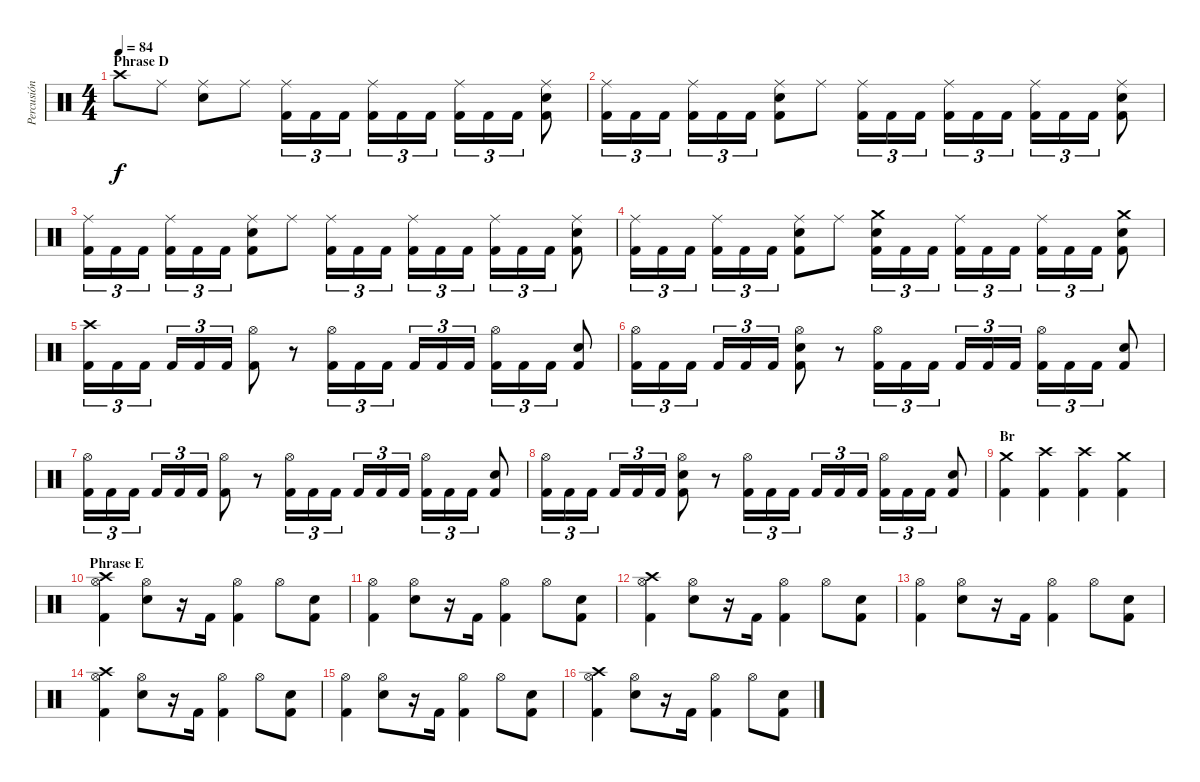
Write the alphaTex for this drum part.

\track ("Percusión" "Percusión") {instrument percussion}
\staff {score}
\articulation defaults
\ts (4 4)
\section ("" "Phrase D")
\tempo 84
\clef neutral
\ks c "Crash high (hit)".8{dy f} "Ride (middle)".8
("Ride (middle)" "Electric Snare (hit)").8 "Ride (middle)".8 ("Ride (middle)" "Kick (hit) 2").16{tu (3 2)} "Kick (hit) 2".16{tu (3 2)} "Kick (hit) 2".16{tu (3 2)} ("Ride (middle)" "Kick (hit) 2").16{tu (3 2)} "Kick (hit) 2".16{tu (3 2)} "Kick (hit) 2".16{tu (3 2)} ("Ride (middle)" "Kick (hit) 2").16{tu (3 2)} "Kick (hit) 2".16{tu (3 2)} "Kick (hit) 2".16{tu (3 2)} ("Ride (middle)" "Electric Snare (hit)" "Kick (hit) 2").8 |
("Ride (middle)" "Kick (hit) 2").16{tu (3 2)} "Kick (hit) 2".16{tu (3 2)} "Kick (hit) 2".16{tu (3 2)} ("Ride (middle)" "Kick (hit) 2").16{tu (3 2)} "Kick (hit) 2".16{tu (3 2)} "Kick (hit) 2".16{tu (3 2)} ("Ride (middle)" "Electric Snare (hit)" "Kick (hit) 2").8 "Ride (middle)".8 ("Ride (middle)" "Kick (hit) 2").16{tu (3 2)} "Kick (hit) 2".16{tu (3 2)} "Kick (hit) 2".16{tu (3 2)} ("Ride (middle)" "Kick (hit) 2").16{tu (3 2)} "Kick (hit) 2".16{tu (3 2)} "Kick (hit) 2".16{tu (3 2)} ("Ride (middle)" "Kick (hit) 2").16{tu (3 2)} "Kick (hit) 2".16{tu (3 2)} "Kick (hit) 2".16{tu (3 2)} ("Ride (middle)" "Electric Snare (hit)" "Kick (hit) 2").8 |
("Ride (middle)" "Kick (hit) 2").16{tu (3 2)} "Kick (hit) 2".16{tu (3 2)} "Kick (hit) 2".16{tu (3 2)} ("Ride (middle)" "Kick (hit) 2").16{tu (3 2)} "Kick (hit) 2".16{tu (3 2)} "Kick (hit) 2".16{tu (3 2)} ("Ride (middle)" "Electric Snare (hit)" "Kick (hit) 2").8 "Ride (middle)".8 ("Ride (middle)" "Kick (hit) 2").16{tu (3 2)} "Kick (hit) 2".16{tu (3 2)} "Kick (hit) 2".16{tu (3 2)} ("Ride (middle)" "Kick (hit) 2").16{tu (3 2)} "Kick (hit) 2".16{tu (3 2)} "Kick (hit) 2".16{tu (3 2)} ("Ride (middle)" "Kick (hit) 2").16{tu (3 2)} "Kick (hit) 2".16{tu (3 2)} "Kick (hit) 2".16{tu (3 2)} ("Ride (middle)" "Electric Snare (hit)" "Kick (hit) 2").8 |
("Ride (middle)" "Kick (hit) 2").16{tu (3 2)} "Kick (hit) 2".16{tu (3 2)} "Kick (hit) 2".16{tu (3 2)} ("Ride (middle)" "Kick (hit) 2").16{tu (3 2)} "Kick (hit) 2".16{tu (3 2)} "Kick (hit) 2".16{tu (3 2)} ("Ride (middle)" "Electric Snare (hit)" "Kick (hit) 2").8 "Ride (middle)".8 ("Crash medium (hit)" "Electric Snare (hit)" "Kick (hit) 2").16{tu (3 2)} "Kick (hit) 2".16{tu (3 2)} "Kick (hit) 2".16{tu (3 2)} ("Ride (middle)" "Kick (hit) 2").16{tu (3 2)} "Kick (hit) 2".16{tu (3 2)} "Kick (hit) 2".16{tu (3 2)} ("Ride (middle)" "Kick (hit) 2").16{tu (3 2)} "Kick (hit) 2".16{tu (3 2)} "Kick (hit) 2".16{tu (3 2)} ("Crash medium (hit)" "Electric Snare (hit)" "Kick (hit) 2").8 |
("Crash high (hit)" "Kick (hit) 2").16{tu (3 2)} "Kick (hit) 2".16{tu (3 2)} "Kick (hit) 2".16{tu (3 2)} "Kick (hit) 2".16{tu (3 2)} "Kick (hit) 2".16{tu (3 2)} "Kick (hit) 2".16{tu (3 2)} ("Hi-Hat (open)" "Kick (hit) 2").8 r.8 ("Hi-Hat (open)" "Kick (hit) 2").16{tu (3 2)} "Kick (hit) 2".16{tu (3 2)} "Kick (hit) 2".16{tu (3 2)} "Kick (hit) 2".16{tu (3 2)} "Kick (hit) 2".16{tu (3 2)} "Kick (hit) 2".16{tu (3 2)} ("Hi-Hat (open)" "Kick (hit) 2").16{tu (3 2)} "Kick (hit) 2".16{tu (3 2)} "Kick (hit) 2".16{tu (3 2)} ("Electric Snare (hit)" "Kick (hit) 2").8 |
("Hi-Hat (open)" "Kick (hit) 2").16{tu (3 2)} "Kick (hit) 2".16{tu (3 2)} "Kick (hit) 2".16{tu (3 2)} "Kick (hit) 2".16{tu (3 2)} "Kick (hit) 2".16{tu (3 2)} "Kick (hit) 2".16{tu (3 2)} ("Hi-Hat (open)" "Electric Snare (hit)" "Kick (hit) 2").8 r.8 ("Hi-Hat (open)" "Kick (hit) 2").16{tu (3 2)} "Kick (hit) 2".16{tu (3 2)} "Kick (hit) 2".16{tu (3 2)} "Kick (hit) 2".16{tu (3 2)} "Kick (hit) 2".16{tu (3 2)} "Kick (hit) 2".16{tu (3 2)} ("Hi-Hat (open)" "Kick (hit) 2").16{tu (3 2)} "Kick (hit) 2".16{tu (3 2)} "Kick (hit) 2".16{tu (3 2)} ("Electric Snare (hit)" "Kick (hit) 2").8 |
("Hi-Hat (open)" "Kick (hit) 2").16{tu (3 2)} "Kick (hit) 2".16{tu (3 2)} "Kick (hit) 2".16{tu (3 2)} "Kick (hit) 2".16{tu (3 2)} "Kick (hit) 2".16{tu (3 2)} "Kick (hit) 2".16{tu (3 2)} ("Hi-Hat (open)" "Kick (hit) 2").8 r.8 ("Hi-Hat (open)" "Kick (hit) 2").16{tu (3 2)} "Kick (hit) 2".16{tu (3 2)} "Kick (hit) 2".16{tu (3 2)} "Kick (hit) 2".16{tu (3 2)} "Kick (hit) 2".16{tu (3 2)} "Kick (hit) 2".16{tu (3 2)} ("Hi-Hat (open)" "Kick (hit) 2").16{tu (3 2)} "Kick (hit) 2".16{tu (3 2)} "Kick (hit) 2".16{tu (3 2)} ("Electric Snare (hit)" "Kick (hit) 2").8 |
("Hi-Hat (open)" "Kick (hit) 2").16{tu (3 2)} "Kick (hit) 2".16{tu (3 2)} "Kick (hit) 2".16{tu (3 2)} "Kick (hit) 2".16{tu (3 2)} "Kick (hit) 2".16{tu (3 2)} "Kick (hit) 2".16{tu (3 2)} ("Hi-Hat (open)" "Electric Snare (hit)" "Kick (hit) 2").8 r.8 ("Hi-Hat (open)" "Kick (hit) 2").16{tu (3 2)} "Kick (hit) 2".16{tu (3 2)} "Kick (hit) 2".16{tu (3 2)} "Kick (hit) 2".16{tu (3 2)} "Kick (hit) 2".16{tu (3 2)} "Kick (hit) 2".16{tu (3 2)} ("Hi-Hat (open)" "Kick (hit) 2").16{tu (3 2)} "Kick (hit) 2".16{tu (3 2)} "Kick (hit) 2".16{tu (3 2)} ("Electric Snare (hit)" "Kick (hit) 2").8 |
\section ("" "Br")
("Crash medium (hit)" "Kick (hit) 2").4 ("Crash high (hit)" "Kick (hit) 2").4 ("Crash high (hit)" "Kick (hit) 2").4 ("Crash medium (hit)" "Kick (hit) 2").4 |
\section ("" "Phrase E")
("Hi-Hat (open)" "Crash high (hit)" "Kick (hit) 2").4 ("Hi-Hat (open)" "Electric Snare (hit)").8 r.16 "Kick (hit) 2".16 ("Hi-Hat (open)" "Kick (hit) 2").4 "Hi-Hat (open)".8 ("Electric Snare (hit)" "Kick (hit) 2").8 |
("Hi-Hat (open)" "Kick (hit) 2").4 ("Hi-Hat (open)" "Electric Snare (hit)").8 r.16 "Kick (hit) 2".16 ("Hi-Hat (open)" "Kick (hit) 2").4 "Hi-Hat (open)".8 ("Electric Snare (hit)" "Kick (hit) 2").8 |
("Hi-Hat (open)" "Crash high (hit)" "Kick (hit) 2").4 ("Hi-Hat (open)" "Electric Snare (hit)").8 r.16 "Kick (hit) 2".16 ("Hi-Hat (open)" "Kick (hit) 2").4 "Hi-Hat (open)".8 ("Electric Snare (hit)" "Kick (hit) 2").8 |
("Hi-Hat (open)" "Kick (hit) 2").4 ("Hi-Hat (open)" "Electric Snare (hit)").8 r.16 "Kick (hit) 2".16 ("Hi-Hat (open)" "Kick (hit) 2").4 "Hi-Hat (open)".8 ("Electric Snare (hit)" "Kick (hit) 2").8 |
("Hi-Hat (open)" "Crash high (hit)" "Kick (hit) 2").4 ("Hi-Hat (open)" "Electric Snare (hit)").8 r.16 "Kick (hit) 2".16 ("Hi-Hat (open)" "Kick (hit) 2").4 "Hi-Hat (open)".8 ("Electric Snare (hit)" "Kick (hit) 2").8 |
("Hi-Hat (open)" "Kick (hit) 2").4 ("Hi-Hat (open)" "Electric Snare (hit)").8 r.16 "Kick (hit) 2".16 ("Hi-Hat (open)" "Kick (hit) 2").4 "Hi-Hat (open)".8 ("Electric Snare (hit)" "Kick (hit) 2").8 |
("Hi-Hat (open)" "Crash high (hit)" "Kick (hit) 2").4 ("Hi-Hat (open)" "Electric Snare (hit)").8 r.16 "Kick (hit) 2".16 ("Hi-Hat (open)" "Kick (hit) 2").4 "Hi-Hat (open)".8 ("Electric Snare (hit)" "Kick (hit) 2").8
